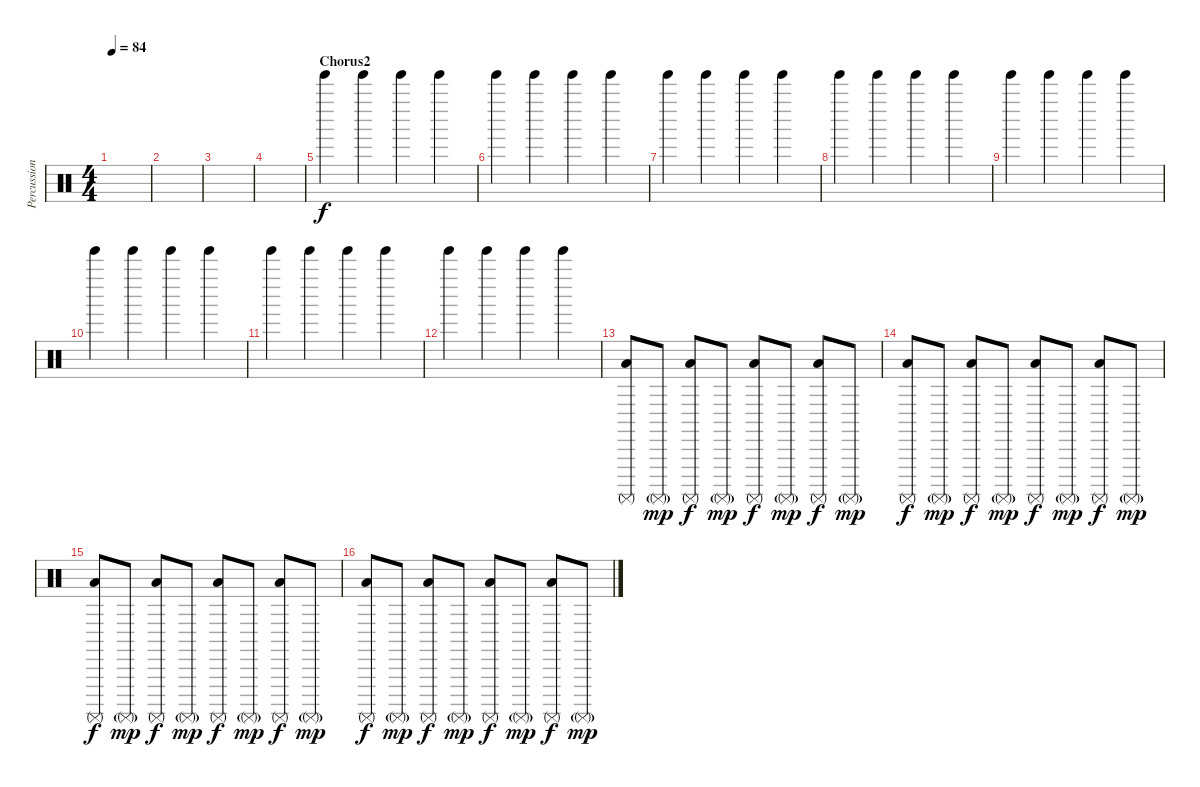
\track ("Percussion" "Percussion") {instrument percussion}
\staff {score}
\articulation defaults
\ts (4 4)
\tempo 84
\clef neutral
\ks c
|
|
|
|
\section ("" "Chorus2")
"Tinkle Bell (hit)".4{volume 3} "Tinkle Bell (hit)".4 "Tinkle Bell (hit)".4 "Tinkle Bell (hit)".4 |
"Tinkle Bell (hit)".4 "Tinkle Bell (hit)".4 "Tinkle Bell (hit)".4 "Tinkle Bell (hit)".4 |
"Tinkle Bell (hit)".4 "Tinkle Bell (hit)".4 "Tinkle Bell (hit)".4 "Tinkle Bell (hit)".4 |
"Tinkle Bell (hit)".4 "Tinkle Bell (hit)".4 "Tinkle Bell (hit)".4 "Tinkle Bell (hit)".4 |
"Tinkle Bell (hit)".4 "Tinkle Bell (hit)".4 "Tinkle Bell (hit)".4 "Tinkle Bell (hit)".4 |
"Tinkle Bell (hit)".4 "Tinkle Bell (hit)".4 "Tinkle Bell (hit)".4 "Tinkle Bell (hit)".4 |
"Tinkle Bell (hit)".4 "Tinkle Bell (hit)".4 "Tinkle Bell (hit)".4 "Tinkle Bell (hit)".4 |
"Tinkle Bell (hit)".4 "Tinkle Bell (hit)".4 "Tinkle Bell (hit)".4 "Tinkle Bell (hit)".4 |
("Low Floor Tom (hit)" "Surdo (mute)").8{volume 8} "Surdo (mute)"{g}.8{dy mp} ("Low Floor Tom (hit)" "Surdo (mute)").8{dy f} "Surdo (mute)"{g}.8{dy mp} ("Low Floor Tom (hit)" "Surdo (mute)").8{dy f} "Surdo (mute)"{g}.8{dy mp} ("Low Floor Tom (hit)" "Surdo (mute)").8{dy f} "Surdo (mute)"{g}.8{dy mp} |
("Low Floor Tom (hit)" "Surdo (mute)").8{dy f volume 8} "Surdo (mute)"{g}.8{dy mp} ("Low Floor Tom (hit)" "Surdo (mute)").8{dy f} "Surdo (mute)"{g}.8{dy mp} ("Low Floor Tom (hit)" "Surdo (mute)").8{dy f} "Surdo (mute)"{g}.8{dy mp} ("Low Floor Tom (hit)" "Surdo (mute)").8{dy f} "Surdo (mute)"{g}.8{dy mp} |
("Low Floor Tom (hit)" "Surdo (mute)").8{dy f volume 8} "Surdo (mute)"{g}.8{dy mp} ("Low Floor Tom (hit)" "Surdo (mute)").8{dy f} "Surdo (mute)"{g}.8{dy mp} ("Low Floor Tom (hit)" "Surdo (mute)").8{dy f} "Surdo (mute)"{g}.8{dy mp} ("Low Floor Tom (hit)" "Surdo (mute)").8{dy f} "Surdo (mute)"{g}.8{dy mp} |
("Low Floor Tom (hit)" "Surdo (mute)").8{dy f volume 8} "Surdo (mute)"{g}.8{dy mp} ("Low Floor Tom (hit)" "Surdo (mute)").8{dy f} "Surdo (mute)"{g}.8{dy mp} ("Low Floor Tom (hit)" "Surdo (mute)").8{dy f} "Surdo (mute)"{g}.8{dy mp} ("Low Floor Tom (hit)" "Surdo (mute)").8{dy f} "Surdo (mute)"{g}.8{dy mp}
